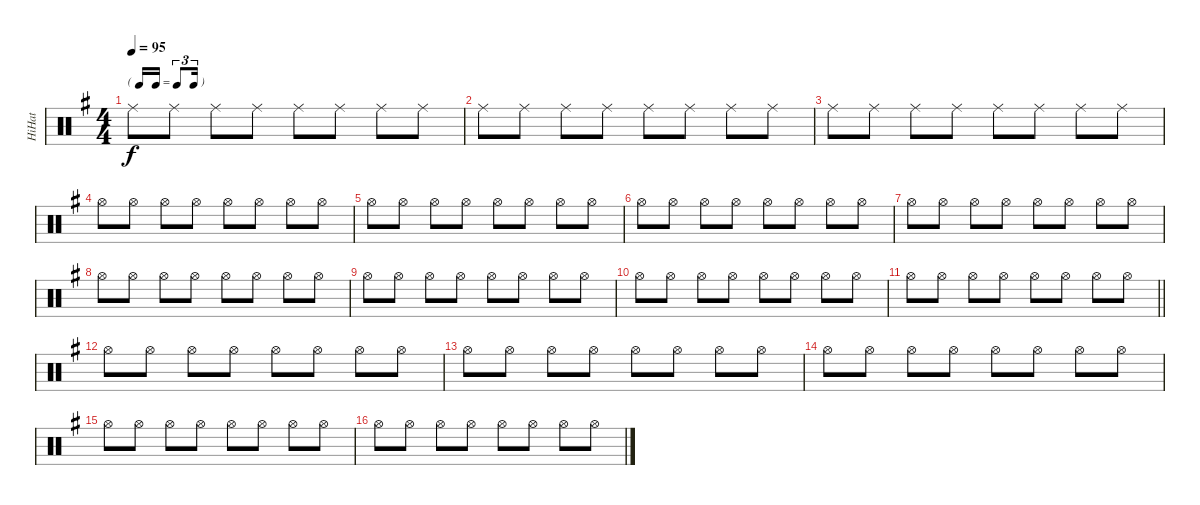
\track ("HiHat" "HiHat") {instrument percussion}
\staff {score}
\articulation defaults
\ts (4 4)
\tf triplet16th
\tempo 95
\clef neutral
\ks eminor "Ride (middle)".8{dy f} "Ride (middle)".8 "Ride (middle)".8 "Ride (middle)".8 "Ride (middle)".8 "Ride (middle)".8 "Ride (middle)".8 "Ride (middle)".8
|
"Ride (middle)".8 "Ride (middle)".8 "Ride (middle)".8 "Ride (middle)".8 "Ride (middle)".8 "Ride (middle)".8 "Ride (middle)".8 "Ride (middle)".8 |
"Ride (middle)".8 "Ride (middle)".8 "Ride (middle)".8 "Ride (middle)".8 "Ride (middle)".8 "Ride (middle)".8 "Ride (middle)".8 "Ride (middle)".8 |
"Hi-Hat (open)".8 "Hi-Hat (open)".8 "Hi-Hat (open)".8 "Hi-Hat (open)".8 "Hi-Hat (open)".8 "Hi-Hat (open)".8 "Hi-Hat (open)".8 "Hi-Hat (open)".8 |
"Hi-Hat (open)".8 "Hi-Hat (open)".8 "Hi-Hat (open)".8 "Hi-Hat (open)".8 "Hi-Hat (open)".8 "Hi-Hat (open)".8 "Hi-Hat (open)".8 "Hi-Hat (open)".8 |
"Hi-Hat (open)".8 "Hi-Hat (open)".8 "Hi-Hat (open)".8 "Hi-Hat (open)".8 "Hi-Hat (open)".8 "Hi-Hat (open)".8 "Hi-Hat (open)".8 "Hi-Hat (open)".8 |
"Hi-Hat (open)".8 "Hi-Hat (open)".8 "Hi-Hat (open)".8 "Hi-Hat (open)".8 "Hi-Hat (open)".8 "Hi-Hat (open)".8 "Hi-Hat (open)".8 "Hi-Hat (open)".8 |
"Hi-Hat (open)".8 "Hi-Hat (open)".8 "Hi-Hat (open)".8 "Hi-Hat (open)".8 "Hi-Hat (open)".8 "Hi-Hat (open)".8 "Hi-Hat (open)".8 "Hi-Hat (open)".8 |
"Hi-Hat (open)".8 "Hi-Hat (open)".8 "Hi-Hat (open)".8 "Hi-Hat (open)".8 "Hi-Hat (open)".8 "Hi-Hat (open)".8 "Hi-Hat (open)".8 "Hi-Hat (open)".8 |
"Hi-Hat (open)".8 "Hi-Hat (open)".8 "Hi-Hat (open)".8 "Hi-Hat (open)".8 "Hi-Hat (open)".8 "Hi-Hat (open)".8 "Hi-Hat (open)".8 "Hi-Hat (open)".8 |
\barLineRight lightlight "Hi-Hat (open)".8 "Hi-Hat (open)".8 "Hi-Hat (open)".8 "Hi-Hat (open)".8 "Hi-Hat (open)".8 "Hi-Hat (open)".8 "Hi-Hat (open)".8 "Hi-Hat (open)".8
|
"Hi-Hat (open)".8 "Hi-Hat (open)".8 "Hi-Hat (open)".8 "Hi-Hat (open)".8 "Hi-Hat (open)".8 "Hi-Hat (open)".8 "Hi-Hat (open)".8 "Hi-Hat (open)".8 |
"Hi-Hat (open)".8 "Hi-Hat (open)".8 "Hi-Hat (open)".8 "Hi-Hat (open)".8 "Hi-Hat (open)".8 "Hi-Hat (open)".8 "Hi-Hat (open)".8 "Hi-Hat (open)".8 |
"Hi-Hat (open)".8 "Hi-Hat (open)".8 "Hi-Hat (open)".8 "Hi-Hat (open)".8 "Hi-Hat (open)".8 "Hi-Hat (open)".8 "Hi-Hat (open)".8 "Hi-Hat (open)".8 |
"Hi-Hat (open)".8 "Hi-Hat (open)".8 "Hi-Hat (open)".8 "Hi-Hat (open)".8 "Hi-Hat (open)".8 "Hi-Hat (open)".8 "Hi-Hat (open)".8 "Hi-Hat (open)".8 |
"Hi-Hat (open)".8 "Hi-Hat (open)".8 "Hi-Hat (open)".8 "Hi-Hat (open)".8 "Hi-Hat (open)".8 "Hi-Hat (open)".8 "Hi-Hat (open)".8 "Hi-Hat (open)".8
